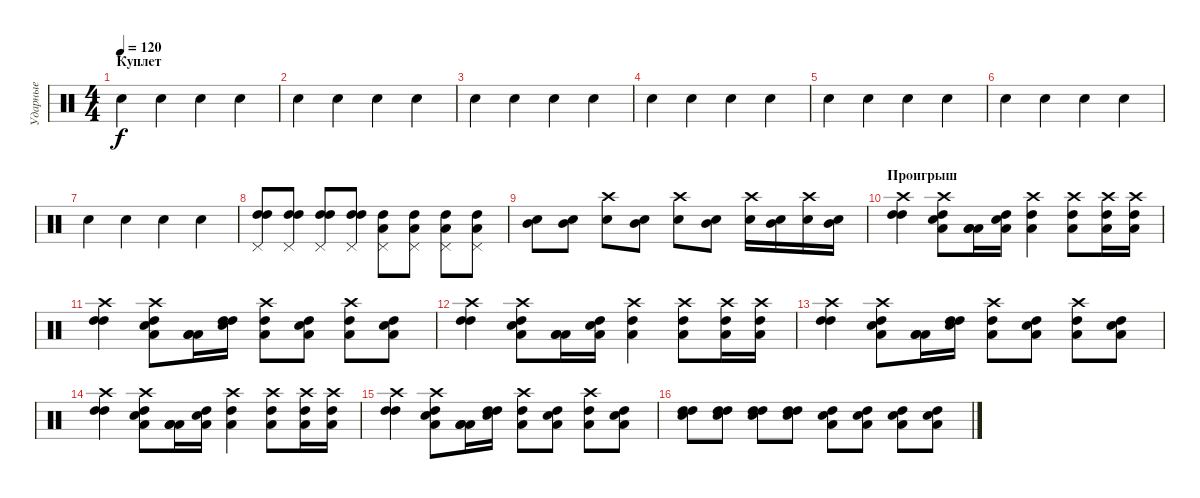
\track ("Ударные" "Ударные") {instrument percussion}
\staff {score}
\articulation defaults
\ts (4 4)
\section ("" "Куплет")
\tempo 120
\clef neutral
\ks c "Electric Snare (hit)".4{dy f volume 7} "Electric Snare (hit)".4 "Electric Snare (hit)".4 "Electric Snare (hit)".4
|
"Electric Snare (hit)".4 "Electric Snare (hit)".4 "Electric Snare (hit)".4 "Electric Snare (hit)".4 |
"Electric Snare (hit)".4 "Electric Snare (hit)".4 "Electric Snare (hit)".4 "Electric Snare (hit)".4 |
"Electric Snare (hit)".4{volume 10} "Electric Snare (hit)".4 "Electric Snare (hit)".4 "Electric Snare (hit)".4 |
"Electric Snare (hit)".4 "Electric Snare (hit)".4 "Electric Snare (hit)".4 "Electric Snare (hit)".4 |
"Electric Snare (hit)".4{volume 13} "Electric Snare (hit)".4 "Electric Snare (hit)".4 "Electric Snare (hit)".4 |
"Electric Snare (hit)".4 "Electric Snare (hit)".4 "Electric Snare (hit)".4 "Electric Snare (hit)".4 |
("High Tom (hit)" "High Tom (hit)" "Pedal Hi-Hat (hit)").8{volume 16} ("High Tom (hit)" "High Tom (hit)" "Pedal Hi-Hat (hit)").8 ("High Tom (hit)" "High Tom (hit)" "Pedal Hi-Hat (hit)").8 ("High Tom (hit)" "High Tom (hit)" "Pedal Hi-Hat (hit)").8 ("High Tom (hit)" "Low Tom (hit)" "Pedal Hi-Hat (hit)").8 ("High Tom (hit)" "Low Tom (hit)" "Pedal Hi-Hat (hit)").8 ("High Tom (hit)" "Low Tom (hit)" "Pedal Hi-Hat (hit)").8 ("High Tom (hit)" "Low Tom (hit)" "Pedal Hi-Hat (hit)").8 |
("Electric Snare (hit)" "Mid Tom (hit)").8 ("Electric Snare (hit)" "Mid Tom (hit)").8 ("Electric Snare (hit)" "Crash high (hit)").8 ("Electric Snare (hit)" "Mid Tom (hit)").8 ("Electric Snare (hit)" "Crash high (hit)").8 ("Electric Snare (hit)" "Mid Tom (hit)").8 ("Electric Snare (hit)" "Crash high (hit)").16 ("Electric Snare (hit)" "Mid Tom (hit)").16 ("Electric Snare (hit)" "Crash high (hit)").16 ("Electric Snare (hit)" "Mid Tom (hit)").16 |
\section ("" "Проигрыш")
("High Tom (hit)" "High Tom (hit)" "Crash high (hit)").4 ("High Tom (hit)" "Low Tom (hit)" "Electric Snare (hit)" "Crash high (hit)").8 ("Low Tom (hit)" "Low Tom (hit)" "Low Tom (hit)").16 ("High Tom (hit)" "Low Tom (hit)" "Electric Snare (hit)").16 ("High Tom (hit)" "Low Tom (hit)" "Crash high (hit)").4 ("High Tom (hit)" "Low Tom (hit)" "Crash high (hit)").8 ("High Tom (hit)" "Low Tom (hit)" "Crash high (hit)").16 ("High Tom (hit)" "Low Tom (hit)" "Crash high (hit)").16 |
("High Tom (hit)" "High Tom (hit)" "Crash high (hit)").4 ("High Tom (hit)" "Low Tom (hit)" "Electric Snare (hit)" "Crash high (hit)").8 ("Low Tom (hit)" "Low Tom (hit)" "Low Tom (hit)").16 ("High Tom (hit)" "High Tom (hit)" "Snare (hit) 2").16 ("High Tom (hit)" "Low Tom (hit)" "Crash high (hit)").8 ("High Tom (hit)" "Low Tom (hit)" "Electric Snare (hit)").8 ("High Tom (hit)" "Low Tom (hit)" "Crash high (hit)").8 ("High Tom (hit)" "Low Tom (hit)" "Electric Snare (hit)").8 |
("High Tom (hit)" "High Tom (hit)" "Crash high (hit)").4 ("High Tom (hit)" "Low Tom (hit)" "Electric Snare (hit)" "Crash high (hit)").8 ("Low Tom (hit)" "Low Tom (hit)" "Low Tom (hit)").16 ("High Tom (hit)" "Low Tom (hit)" "Electric Snare (hit)").16 ("High Tom (hit)" "Low Tom (hit)" "Crash high (hit)").4 ("High Tom (hit)" "Low Tom (hit)" "Crash high (hit)").8 ("High Tom (hit)" "Low Tom (hit)" "Crash high (hit)").16 ("High Tom (hit)" "Low Tom (hit)" "Crash high (hit)").16 |
("High Tom (hit)" "High Tom (hit)" "Crash high (hit)").4 ("High Tom (hit)" "Low Tom (hit)" "Electric Snare (hit)" "Crash high (hit)").8 ("Low Tom (hit)" "Low Tom (hit)" "Low Tom (hit)").16 ("High Tom (hit)" "High Tom (hit)" "Snare (hit) 2").16 ("High Tom (hit)" "Low Tom (hit)" "Crash high (hit)").8 ("High Tom (hit)" "Low Tom (hit)" "Electric Snare (hit)").8 ("High Tom (hit)" "Low Tom (hit)" "Crash high (hit)").8 ("High Tom (hit)" "Low Tom (hit)" "Electric Snare (hit)").8 |
("High Tom (hit)" "High Tom (hit)" "Crash high (hit)").4 ("High Tom (hit)" "Low Tom (hit)" "Electric Snare (hit)" "Crash high (hit)").8 ("Low Tom (hit)" "Low Tom (hit)" "Low Tom (hit)").16 ("High Tom (hit)" "Low Tom (hit)" "Electric Snare (hit)").16 ("High Tom (hit)" "Low Tom (hit)" "Crash high (hit)").4 ("High Tom (hit)" "Low Tom (hit)" "Crash high (hit)").8 ("High Tom (hit)" "Low Tom (hit)" "Crash high (hit)").16 ("High Tom (hit)" "Low Tom (hit)" "Crash high (hit)").16 |
("High Tom (hit)" "High Tom (hit)" "Crash high (hit)").4 ("High Tom (hit)" "Low Tom (hit)" "Electric Snare (hit)" "Crash high (hit)").8 ("Low Tom (hit)" "Low Tom (hit)" "Low Tom (hit)").16 ("High Tom (hit)" "High Tom (hit)" "Snare (hit) 2").16 ("High Tom (hit)" "Low Tom (hit)" "Crash high (hit)").8 ("High Tom (hit)" "Low Tom (hit)" "Electric Snare (hit)").8 ("High Tom (hit)" "Low Tom (hit)" "Crash high (hit)").8 ("High Tom (hit)" "Low Tom (hit)" "Electric Snare (hit)").8 |
("High Tom (hit)" "High Tom (hit)" "Snare (hit) 2").8 ("High Tom (hit)" "High Tom (hit)" "Snare (hit) 2").8 ("High Tom (hit)" "High Tom (hit)" "Snare (hit) 2").8 ("High Tom (hit)" "High Tom (hit)" "Snare (hit) 2").8 ("High Tom (hit)" "Low Tom (hit)" "Snare (hit) 2").8 ("High Tom (hit)" "Low Tom (hit)" "Snare (hit) 2").8 ("High Tom (hit)" "Low Tom (hit)" "Snare (hit) 2").8 ("High Tom (hit)" "Low Tom (hit)" "Snare (hit) 2").8
